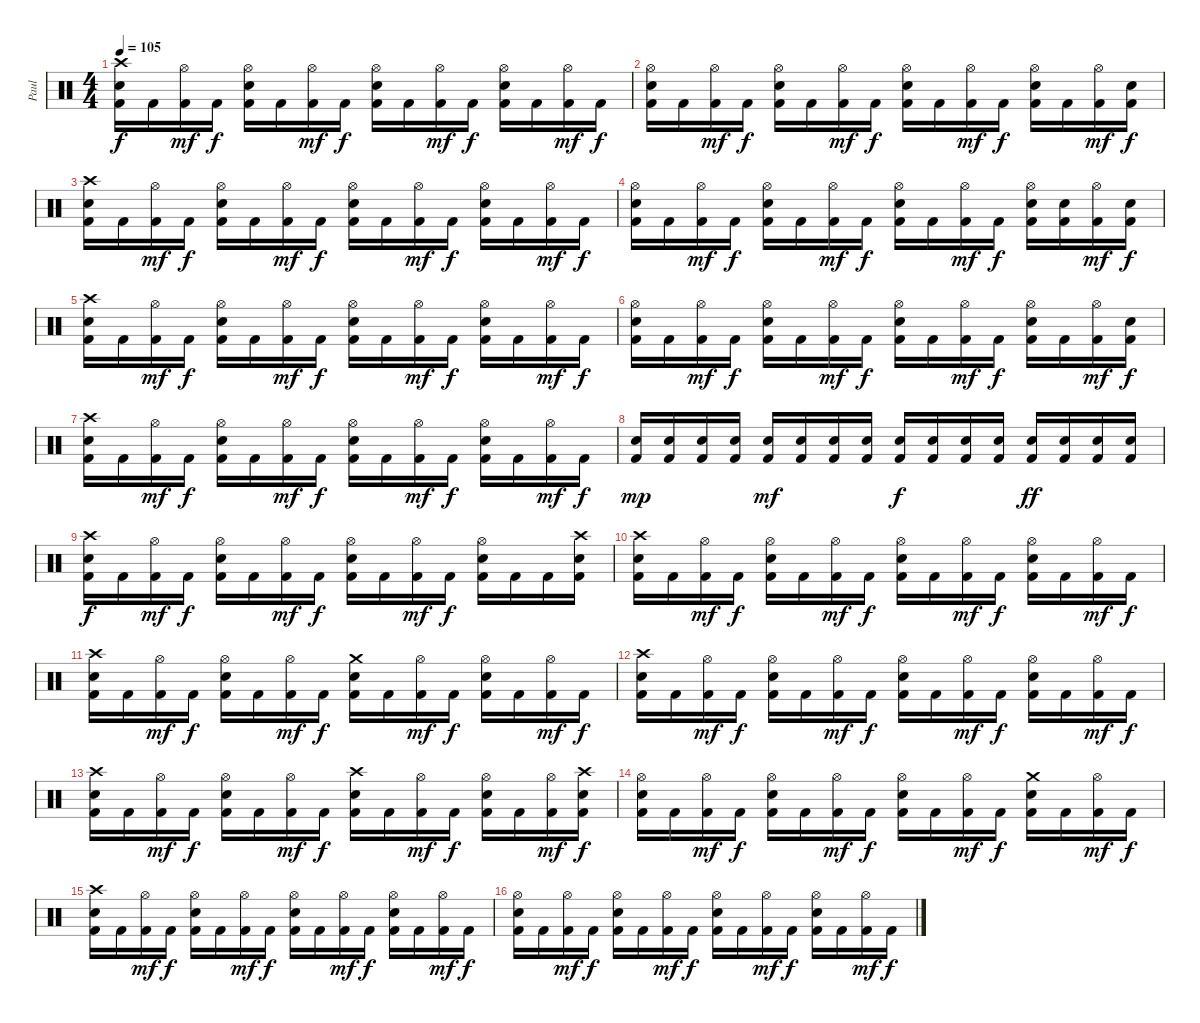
\track ("Paul" "Paul") {instrument percussion}
\staff {score}
\articulation defaults
\ts (4 4)
\tempo 105
\clef neutral
\ks c
("Crash high (hit)" "Electric Snare (hit)" "Kick (hit) 2").16{dy f} "Kick (hit) 2".16 ("Hi-Hat (open)" "Kick (hit) 2").16{dy mf} "Kick (hit) 2".16{dy f} ("Hi-Hat (open)" "Electric Snare (hit)" "Kick (hit) 2").16 "Kick (hit) 2".16 ("Hi-Hat (open)" "Kick (hit) 2").16{dy mf} "Kick (hit) 2".16{dy f} ("Hi-Hat (open)" "Electric Snare (hit)" "Kick (hit) 2").16 "Kick (hit) 2".16 ("Hi-Hat (open)" "Kick (hit) 2").16{dy mf} "Kick (hit) 2".16{dy f} ("Hi-Hat (open)" "Electric Snare (hit)" "Kick (hit) 2").16 "Kick (hit) 2".16 ("Hi-Hat (open)" "Kick (hit) 2").16{dy mf} "Kick (hit) 2".16{dy f} |
("Hi-Hat (open)" "Electric Snare (hit)" "Kick (hit) 2").16 "Kick (hit) 2".16 ("Hi-Hat (open)" "Kick (hit) 2").16{dy mf} "Kick (hit) 2".16{dy f} ("Hi-Hat (open)" "Electric Snare (hit)" "Kick (hit) 2").16 "Kick (hit) 2".16 ("Hi-Hat (open)" "Kick (hit) 2").16{dy mf} "Kick (hit) 2".16{dy f} ("Hi-Hat (open)" "Electric Snare (hit)" "Kick (hit) 2").16 "Kick (hit) 2".16 ("Hi-Hat (open)" "Kick (hit) 2").16{dy mf} "Kick (hit) 2".16{dy f} ("Hi-Hat (open)" "Electric Snare (hit)" "Kick (hit) 2").16 "Kick (hit) 2".16 ("Hi-Hat (open)" "Kick (hit) 2").16{dy mf} ("Electric Snare (hit)" "Kick (hit) 2").16{dy f} |
("Crash high (hit)" "Electric Snare (hit)" "Kick (hit) 2").16 "Kick (hit) 2".16 ("Hi-Hat (open)" "Kick (hit) 2").16{dy mf} "Kick (hit) 2".16{dy f} ("Hi-Hat (open)" "Electric Snare (hit)" "Kick (hit) 2").16 "Kick (hit) 2".16 ("Hi-Hat (open)" "Kick (hit) 2").16{dy mf} "Kick (hit) 2".16{dy f} ("Hi-Hat (open)" "Electric Snare (hit)" "Kick (hit) 2").16 "Kick (hit) 2".16 ("Hi-Hat (open)" "Kick (hit) 2").16{dy mf} "Kick (hit) 2".16{dy f} ("Hi-Hat (open)" "Electric Snare (hit)" "Kick (hit) 2").16 "Kick (hit) 2".16 ("Hi-Hat (open)" "Kick (hit) 2").16{dy mf} "Kick (hit) 2".16{dy f} |
("Hi-Hat (open)" "Electric Snare (hit)" "Kick (hit) 2").16 "Kick (hit) 2".16 ("Hi-Hat (open)" "Kick (hit) 2").16{dy mf} "Kick (hit) 2".16{dy f} ("Hi-Hat (open)" "Electric Snare (hit)" "Kick (hit) 2").16 "Kick (hit) 2".16 ("Hi-Hat (open)" "Kick (hit) 2").16{dy mf} "Kick (hit) 2".16{dy f} ("Hi-Hat (open)" "Electric Snare (hit)" "Kick (hit) 2").16 "Kick (hit) 2".16 ("Hi-Hat (open)" "Kick (hit) 2").16{dy mf} "Kick (hit) 2".16{dy f} ("Hi-Hat (open)" "Electric Snare (hit)" "Kick (hit) 2").16 ("Electric Snare (hit)" "Kick (hit) 2").16 ("Hi-Hat (open)" "Kick (hit) 2").16{dy mf} ("Electric Snare (hit)" "Kick (hit) 2").16{dy f} |
("Crash high (hit)" "Electric Snare (hit)" "Kick (hit) 2").16 "Kick (hit) 2".16 ("Hi-Hat (open)" "Kick (hit) 2").16{dy mf} "Kick (hit) 2".16{dy f} ("Hi-Hat (open)" "Electric Snare (hit)" "Kick (hit) 2").16 "Kick (hit) 2".16 ("Hi-Hat (open)" "Kick (hit) 2").16{dy mf} "Kick (hit) 2".16{dy f} ("Hi-Hat (open)" "Electric Snare (hit)" "Kick (hit) 2").16 "Kick (hit) 2".16 ("Hi-Hat (open)" "Kick (hit) 2").16{dy mf} "Kick (hit) 2".16{dy f} ("Hi-Hat (open)" "Electric Snare (hit)" "Kick (hit) 2").16 "Kick (hit) 2".16 ("Hi-Hat (open)" "Kick (hit) 2").16{dy mf} "Kick (hit) 2".16{dy f} |
("Hi-Hat (open)" "Electric Snare (hit)" "Kick (hit) 2").16 "Kick (hit) 2".16 ("Hi-Hat (open)" "Kick (hit) 2").16{dy mf} "Kick (hit) 2".16{dy f} ("Hi-Hat (open)" "Electric Snare (hit)" "Kick (hit) 2").16 "Kick (hit) 2".16 ("Hi-Hat (open)" "Kick (hit) 2").16{dy mf} "Kick (hit) 2".16{dy f} ("Hi-Hat (open)" "Electric Snare (hit)" "Kick (hit) 2").16 "Kick (hit) 2".16 ("Hi-Hat (open)" "Kick (hit) 2").16{dy mf} "Kick (hit) 2".16{dy f} ("Hi-Hat (open)" "Electric Snare (hit)" "Kick (hit) 2").16 "Kick (hit) 2".16 ("Hi-Hat (open)" "Kick (hit) 2").16{dy mf} ("Electric Snare (hit)" "Kick (hit) 2").16{dy f} |
("Crash high (hit)" "Electric Snare (hit)" "Kick (hit) 2").16 "Kick (hit) 2".16 ("Hi-Hat (open)" "Kick (hit) 2").16{dy mf} "Kick (hit) 2".16{dy f} ("Hi-Hat (open)" "Electric Snare (hit)" "Kick (hit) 2").16 "Kick (hit) 2".16 ("Hi-Hat (open)" "Kick (hit) 2").16{dy mf} "Kick (hit) 2".16{dy f} ("Hi-Hat (open)" "Electric Snare (hit)" "Kick (hit) 2").16 "Kick (hit) 2".16 ("Hi-Hat (open)" "Kick (hit) 2").16{dy mf} "Kick (hit) 2".16{dy f} ("Hi-Hat (open)" "Electric Snare (hit)" "Kick (hit) 2").16 "Kick (hit) 2".16 ("Hi-Hat (open)" "Kick (hit) 2").16{dy mf} "Kick (hit) 2".16{dy f} |
("Electric Snare (hit)" "Kick (hit) 2").16{dy mp} ("Electric Snare (hit)" "Kick (hit) 2").16 ("Electric Snare (hit)" "Kick (hit) 2").16 ("Electric Snare (hit)" "Kick (hit) 2").16 ("Electric Snare (hit)" "Kick (hit) 2").16{dy mf} ("Electric Snare (hit)" "Kick (hit) 2").16 ("Electric Snare (hit)" "Kick (hit) 2").16 ("Electric Snare (hit)" "Kick (hit) 2").16 ("Electric Snare (hit)" "Kick (hit) 2").16{dy f} ("Electric Snare (hit)" "Kick (hit) 2").16 ("Electric Snare (hit)" "Kick (hit) 2").16 ("Electric Snare (hit)" "Kick (hit) 2").16 ("Electric Snare (hit)" "Kick (hit) 2").16{dy ff} ("Electric Snare (hit)" "Kick (hit) 2").16 ("Electric Snare (hit)" "Kick (hit) 2").16 ("Electric Snare (hit)" "Kick (hit) 2").16 |
("Crash high (hit)" "Electric Snare (hit)" "Kick (hit) 2").16{dy f} "Kick (hit) 2".16 ("Hi-Hat (open)" "Kick (hit) 2").16{dy mf} "Kick (hit) 2".16{dy f} ("Hi-Hat (open)" "Electric Snare (hit)" "Kick (hit) 2").16 "Kick (hit) 2".16 ("Hi-Hat (open)" "Kick (hit) 2").16{dy mf} "Kick (hit) 2".16{dy f} ("Hi-Hat (open)" "Electric Snare (hit)" "Kick (hit) 2").16 "Kick (hit) 2".16 ("Hi-Hat (open)" "Kick (hit) 2").16{dy mf} "Kick (hit) 2".16{dy f} ("Hi-Hat (open)" "Electric Snare (hit)" "Kick (hit) 2").16 "Kick (hit) 2".16 "Kick (hit) 2".16 ("Crash high (hit)" "Electric Snare (hit)" "Kick (hit) 2").16 |
("Crash high (hit)" "Electric Snare (hit)" "Kick (hit) 2").16 "Kick (hit) 2".16 ("Hi-Hat (open)" "Kick (hit) 2").16{dy mf} "Kick (hit) 2".16{dy f} ("Hi-Hat (open)" "Electric Snare (hit)" "Kick (hit) 2").16 "Kick (hit) 2".16 ("Hi-Hat (open)" "Kick (hit) 2").16{dy mf} "Kick (hit) 2".16{dy f} ("Hi-Hat (open)" "Electric Snare (hit)" "Kick (hit) 2").16 "Kick (hit) 2".16 ("Hi-Hat (open)" "Kick (hit) 2").16{dy mf} "Kick (hit) 2".16{dy f} ("Hi-Hat (open)" "Electric Snare (hit)" "Kick (hit) 2").16 "Kick (hit) 2".16 ("Hi-Hat (open)" "Kick (hit) 2").16{dy mf} "Kick (hit) 2".16{dy f} |
("Crash high (hit)" "Electric Snare (hit)" "Kick (hit) 2").16 "Kick (hit) 2".16 ("Hi-Hat (open)" "Kick (hit) 2").16{dy mf} "Kick (hit) 2".16{dy f} ("Hi-Hat (open)" "Electric Snare (hit)" "Kick (hit) 2").16 "Kick (hit) 2".16 ("Hi-Hat (open)" "Kick (hit) 2").16{dy mf} "Kick (hit) 2".16{dy f} ("Crash medium (hit)" "Electric Snare (hit)" "Kick (hit) 2").16 "Kick (hit) 2".16 ("Hi-Hat (open)" "Kick (hit) 2").16{dy mf} "Kick (hit) 2".16{dy f} ("Hi-Hat (open)" "Electric Snare (hit)" "Kick (hit) 2").16 "Kick (hit) 2".16 ("Hi-Hat (open)" "Kick (hit) 2").16{dy mf} "Kick (hit) 2".16{dy f} |
("Crash high (hit)" "Electric Snare (hit)" "Kick (hit) 2").16 "Kick (hit) 2".16 ("Hi-Hat (open)" "Kick (hit) 2").16{dy mf} "Kick (hit) 2".16{dy f} ("Hi-Hat (open)" "Electric Snare (hit)" "Kick (hit) 2").16 "Kick (hit) 2".16 ("Hi-Hat (open)" "Kick (hit) 2").16{dy mf} "Kick (hit) 2".16{dy f} ("Hi-Hat (open)" "Electric Snare (hit)" "Kick (hit) 2").16 "Kick (hit) 2".16 ("Hi-Hat (open)" "Kick (hit) 2").16{dy mf} "Kick (hit) 2".16{dy f} ("Hi-Hat (open)" "Electric Snare (hit)" "Kick (hit) 2").16 "Kick (hit) 2".16 ("Hi-Hat (open)" "Kick (hit) 2").16{dy mf} "Kick (hit) 2".16{dy f} |
("Crash high (hit)" "Electric Snare (hit)" "Kick (hit) 2").16 "Kick (hit) 2".16 ("Hi-Hat (open)" "Kick (hit) 2").16{dy mf} "Kick (hit) 2".16{dy f} ("Hi-Hat (open)" "Electric Snare (hit)" "Kick (hit) 2").16 "Kick (hit) 2".16 ("Hi-Hat (open)" "Kick (hit) 2").16{dy mf} "Kick (hit) 2".16{dy f} ("Crash high (hit)" "Electric Snare (hit)" "Kick (hit) 2").16 "Kick (hit) 2".16 ("Hi-Hat (open)" "Kick (hit) 2").16{dy mf} "Kick (hit) 2".16{dy f} ("Hi-Hat (open)" "Electric Snare (hit)" "Kick (hit) 2").16 "Kick (hit) 2".16 ("Hi-Hat (open)" "Kick (hit) 2").16{dy mf} ("Crash high (hit)" "Electric Snare (hit)" "Kick (hit) 2").16{dy f} |
("Hi-Hat (open)" "Electric Snare (hit)" "Kick (hit) 2").16 "Kick (hit) 2".16 ("Hi-Hat (open)" "Kick (hit) 2").16{dy mf} "Kick (hit) 2".16{dy f} ("Hi-Hat (open)" "Electric Snare (hit)" "Kick (hit) 2").16 "Kick (hit) 2".16 ("Hi-Hat (open)" "Kick (hit) 2").16{dy mf} "Kick (hit) 2".16{dy f} ("Hi-Hat (open)" "Electric Snare (hit)" "Kick (hit) 2").16 "Kick (hit) 2".16 ("Hi-Hat (open)" "Kick (hit) 2").16{dy mf} "Kick (hit) 2".16{dy f} ("Crash medium (hit)" "Electric Snare (hit)" "Kick (hit) 2").16 "Kick (hit) 2".16 ("Hi-Hat (open)" "Kick (hit) 2").16{dy mf} "Kick (hit) 2".16{dy f} |
("Crash high (hit)" "Electric Snare (hit)" "Kick (hit) 2").16 "Kick (hit) 2".16 ("Hi-Hat (open)" "Kick (hit) 2").16{dy mf} "Kick (hit) 2".16{dy f} ("Hi-Hat (open)" "Electric Snare (hit)" "Kick (hit) 2").16 "Kick (hit) 2".16 ("Hi-Hat (open)" "Kick (hit) 2").16{dy mf} "Kick (hit) 2".16{dy f} ("Hi-Hat (open)" "Electric Snare (hit)" "Kick (hit) 2").16 "Kick (hit) 2".16 ("Hi-Hat (open)" "Kick (hit) 2").16{dy mf} "Kick (hit) 2".16{dy f} ("Hi-Hat (open)" "Electric Snare (hit)" "Kick (hit) 2").16 "Kick (hit) 2".16 ("Hi-Hat (open)" "Kick (hit) 2").16{dy mf} "Kick (hit) 2".16{dy f} |
("Hi-Hat (open)" "Electric Snare (hit)" "Kick (hit) 2").16 "Kick (hit) 2".16 ("Hi-Hat (open)" "Kick (hit) 2").16{dy mf} "Kick (hit) 2".16{dy f} ("Hi-Hat (open)" "Electric Snare (hit)" "Kick (hit) 2").16 "Kick (hit) 2".16 ("Hi-Hat (open)" "Kick (hit) 2").16{dy mf} "Kick (hit) 2".16{dy f} ("Hi-Hat (open)" "Electric Snare (hit)" "Kick (hit) 2").16 "Kick (hit) 2".16 ("Hi-Hat (open)" "Kick (hit) 2").16{dy mf} "Kick (hit) 2".16{dy f} ("Hi-Hat (open)" "Electric Snare (hit)" "Kick (hit) 2").16 "Kick (hit) 2".16 ("Hi-Hat (open)" "Kick (hit) 2").16{dy mf} "Kick (hit) 2".16{dy f}
